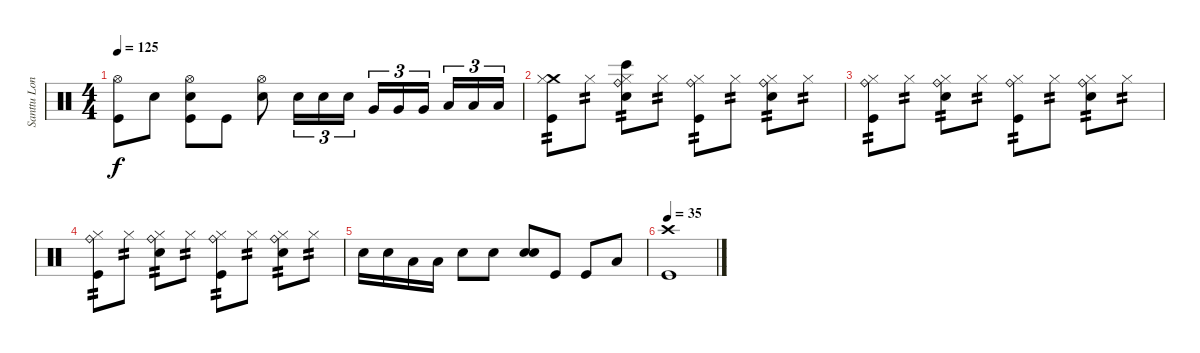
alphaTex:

\track ("Santtu Lonka" "Santtu Lon") {instrument percussion}
\staff {score}
\articulation defaults
\ts (4 4)
\tempo 125
\clef neutral
\ks c
("Hi-Hat (open)" "Kick (hit)").8{dy f} "Electric Snare (hit)".8 ("Hi-Hat (open)" "Electric Snare (hit)" "Kick (hit)").8 "Kick (hit)".8 ("Hi-Hat (open)" "Electric Snare (hit)").8 "Electric Snare (hit)".16{tu (3 2)} "Electric Snare (hit)".16{tu (3 2)} "Electric Snare (hit)".16{tu (3 2)} "Very Low Tom (hit)".16{tu (3 2)} "Very Low Tom (hit)".16{tu (3 2)} "Very Low Tom (hit)".16{tu (3 2) beam splitsecondary} "Low Tom (hit)".16{tu (3 2)} "Low Tom (hit)".16{tu (3 2)} "Low Tom (hit)".16{tu (3 2)} |
("Crash medium (hit)" "Hi-Hat (closed)" "Kick (hit)").8{tp 2} "Hi-Hat (closed)".8{tp 2} ("Ride (bell)" "Hi-Hat (closed)" "Electric Snare (hit)" "Bongo High (hit)").8{tp 2} "Hi-Hat (closed)".8{tp 2} ("Ride (bell)" "Hi-Hat (closed)" "Kick (hit)").8{tp 2} "Hi-Hat (closed)".8{tp 2} ("Ride (bell)" "Hi-Hat (closed)" "Electric Snare (hit)").8{tp 2} "Hi-Hat (closed)".8{tp 2} |
("Ride (bell)" "Hi-Hat (closed)" "Kick (hit)").8{tp 2} "Hi-Hat (closed)".8{tp 2} ("Ride (bell)" "Hi-Hat (closed)" "Electric Snare (hit)").8{tp 2} "Hi-Hat (closed)".8{tp 2} ("Ride (bell)" "Hi-Hat (closed)" "Kick (hit)").8{tp 2} "Hi-Hat (closed)".8{tp 2} ("Ride (bell)" "Hi-Hat (closed)" "Electric Snare (hit)").8{tp 2} "Hi-Hat (closed)".8{tp 2} |
("Ride (bell)" "Hi-Hat (closed)" "Kick (hit)").8{tp 2} "Hi-Hat (closed)".8{tp 2} ("Ride (bell)" "Hi-Hat (closed)" "Electric Snare (hit)").8{tp 2} "Hi-Hat (closed)".8{tp 2} ("Ride (bell)" "Hi-Hat (closed)" "Kick (hit)").8{tp 2} "Hi-Hat (closed)".8{tp 2} ("Ride (bell)" "Hi-Hat (closed)" "Electric Snare (hit)").8{tp 2} "Hi-Hat (closed)".8{tp 2} |
"Electric Snare (hit)".16 "Electric Snare (hit)".16 "Low Tom (hit)".16 "Low Tom (hit)".16 "Electric Snare (hit)".8 "Electric Snare (hit)".8 ("Electric Snare (hit)" "Electric Snare (hit)").8{bd 60} "Kick (hit)".8 "Kick (hit)".8 "Low Tom (hit)".8 |
\tempo 35
("Crash high (hit)" "Kick (hit)").1
